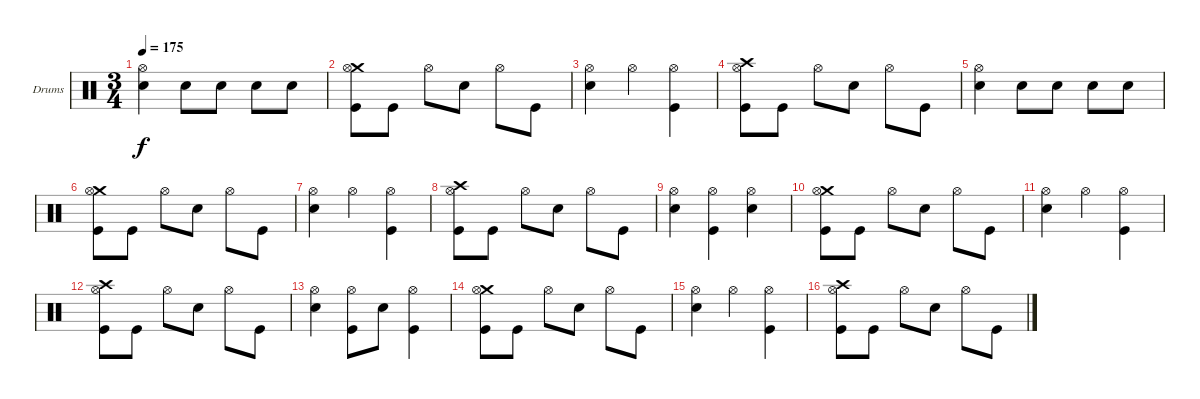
\bracketExtendMode groupsimilarinstruments
\firstSystemTrackNameOrientation horizontal
\otherSystemsTrackNameOrientation horizontal
\track ("Drums" "Drums") {instrument percussion}
\staff {score}
\articulation defaults
\ts (3 4)
\tempo 175
\clef neutral
\ks c
("Hi-Hat (open)" "Snare (hit) 2").4{dy f} "Snare (hit) 2".8 "Snare (hit) 2".8 "Snare (hit) 2".8 "Snare (hit) 2".8 |
("Crash medium (hit)" "Hi-Hat (open)" "Kick (hit)").8 "Kick (hit)".8 "Hi-Hat (open)".8 "Snare (hit) 2".8 "Hi-Hat (open)".8 "Kick (hit)".8 |
("Hi-Hat (open)" "Snare (hit) 2").4 "Hi-Hat (open)".4 ("Hi-Hat (open)" "Kick (hit)").4 |
("Crash high (hit)" "Hi-Hat (open)" "Kick (hit)").8 "Kick (hit)".8 "Hi-Hat (open)".8 "Snare (hit) 2".8 "Hi-Hat (open)".8 "Kick (hit)".8 |
("Hi-Hat (open)" "Snare (hit) 2").4 "Snare (hit) 2".8 "Snare (hit) 2".8 "Snare (hit) 2".8 "Snare (hit) 2".8 |
("Crash medium (hit)" "Hi-Hat (open)" "Kick (hit)").8 "Kick (hit)".8 "Hi-Hat (open)".8 "Snare (hit) 2".8 "Hi-Hat (open)".8 "Kick (hit)".8 |
("Hi-Hat (open)" "Snare (hit) 2").4 "Hi-Hat (open)".4 ("Hi-Hat (open)" "Kick (hit)").4 |
("Crash high (hit)" "Hi-Hat (open)" "Kick (hit)").8 "Kick (hit)".8 "Hi-Hat (open)".8 "Snare (hit) 2".8 "Hi-Hat (open)".8 "Kick (hit)".8 |
("Hi-Hat (open)" "Snare (hit) 2").4 ("Hi-Hat (open)" "Kick (hit)").4 ("Hi-Hat (open)" "Snare (hit) 2").4 |
("Crash medium (hit)" "Hi-Hat (open)" "Kick (hit)").8 "Kick (hit)".8 "Hi-Hat (open)".8 "Snare (hit) 2".8 "Hi-Hat (open)".8 "Kick (hit)".8 |
("Hi-Hat (open)" "Snare (hit) 2").4 "Hi-Hat (open)".4 ("Hi-Hat (open)" "Kick (hit)").4 |
("Crash high (hit)" "Hi-Hat (open)" "Kick (hit)").8 "Kick (hit)".8 "Hi-Hat (open)".8 "Snare (hit) 2".8 "Hi-Hat (open)".8 "Kick (hit)".8 |
("Hi-Hat (open)" "Snare (hit) 2").4 ("Hi-Hat (open)" "Kick (hit)").8 "Snare (hit) 2".8 ("Hi-Hat (open)" "Kick (hit)").4 |
("Crash medium (hit)" "Hi-Hat (open)" "Kick (hit)").8 "Kick (hit)".8 "Hi-Hat (open)".8 "Snare (hit) 2".8 "Hi-Hat (open)".8 "Kick (hit)".8 |
("Hi-Hat (open)" "Snare (hit) 2").4 "Hi-Hat (open)".4 ("Hi-Hat (open)" "Kick (hit)").4 |
("Crash high (hit)" "Hi-Hat (open)" "Kick (hit)").8 "Kick (hit)".8 "Hi-Hat (open)".8 "Snare (hit) 2".8 "Hi-Hat (open)".8 "Kick (hit)".8
